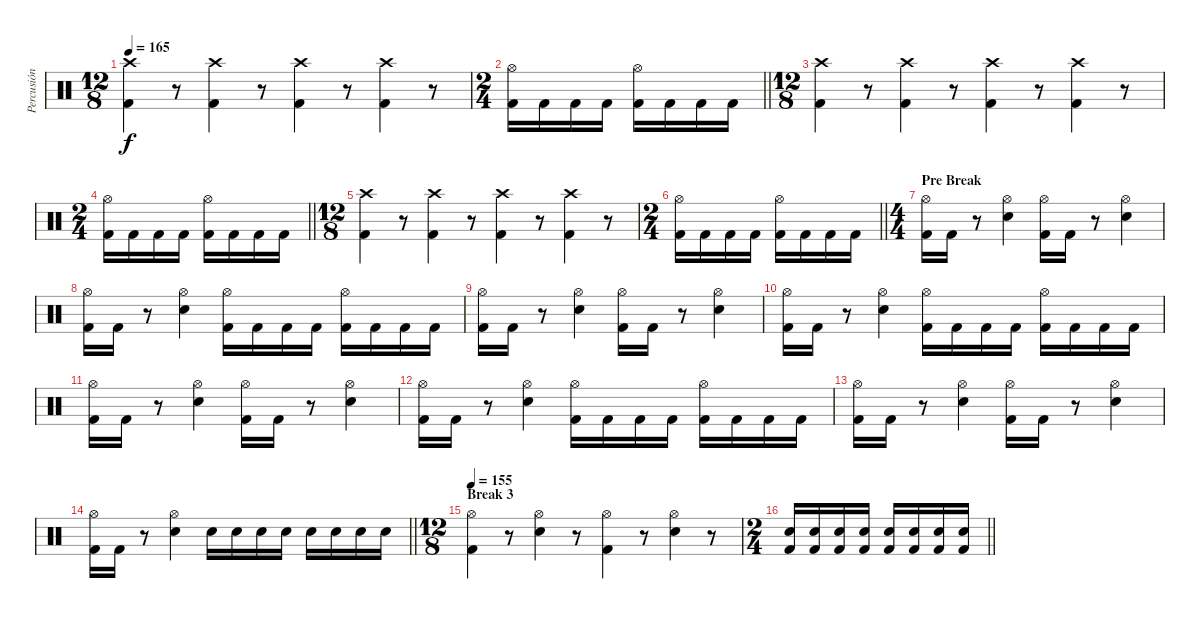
\track ("Percusión" "Percusión") {instrument percussion}
\staff {score}
\articulation defaults
\ts (12 8)
\tempo 165
\clef neutral
\ks c
("Crash high (hit)" "Kick (hit) 2").4{dy f} r.8 ("Crash high (hit)" "Kick (hit) 2").4 r.8 ("Crash high (hit)" "Kick (hit) 2").4 r.8 ("Crash high (hit)" "Kick (hit) 2").4 r.8 |
\ts (2 4)
\barLineRight lightlight
("Hi-Hat (open)" "Kick (hit) 2").16 "Kick (hit) 2".16 "Kick (hit) 2".16 "Kick (hit) 2".16 ("Hi-Hat (open)" "Kick (hit) 2").16 "Kick (hit) 2".16 "Kick (hit) 2".16 "Kick (hit) 2".16 |
\ts (12 8)
("Crash high (hit)" "Kick (hit) 2").4 r.8 ("Crash high (hit)" "Kick (hit) 2").4 r.8 ("Crash high (hit)" "Kick (hit) 2").4 r.8 ("Crash high (hit)" "Kick (hit) 2").4 r.8 |
\ts (2 4)
\barLineRight lightlight
("Hi-Hat (open)" "Kick (hit) 2").16 "Kick (hit) 2".16 "Kick (hit) 2".16 "Kick (hit) 2".16 ("Hi-Hat (open)" "Kick (hit) 2").16 "Kick (hit) 2".16 "Kick (hit) 2".16 "Kick (hit) 2".16 |
\ts (12 8)
("Crash high (hit)" "Kick (hit) 2").4 r.8 ("Crash high (hit)" "Kick (hit) 2").4 r.8 ("Crash high (hit)" "Kick (hit) 2").4 r.8 ("Crash high (hit)" "Kick (hit) 2").4 r.8 |
\ts (2 4)
\barLineRight lightlight
("Hi-Hat (open)" "Kick (hit) 2").16 "Kick (hit) 2".16 "Kick (hit) 2".16 "Kick (hit) 2".16 ("Hi-Hat (open)" "Kick (hit) 2").16 "Kick (hit) 2".16 "Kick (hit) 2".16 "Kick (hit) 2".16 |
\ts (4 4)
\section ("" "Pre Break")
("Hi-Hat (open)" "Kick (hit) 2").16 "Kick (hit) 2".16 r.8 ("Hi-Hat (open)" "Snare (hit) 2").4 ("Hi-Hat (open)" "Kick (hit) 2").16 "Kick (hit) 2".16 r.8 ("Hi-Hat (open)" "Snare (hit) 2").4 |
("Hi-Hat (open)" "Kick (hit) 2").16 "Kick (hit) 2".16 r.8 ("Hi-Hat (open)" "Snare (hit) 2").4 ("Hi-Hat (open)" "Kick (hit) 2").16 "Kick (hit) 2".16 "Kick (hit) 2".16 "Kick (hit) 2".16 ("Hi-Hat (open)" "Kick (hit) 2").16 "Kick (hit) 2".16 "Kick (hit) 2".16 "Kick (hit) 2".16 |
("Hi-Hat (open)" "Kick (hit) 2").16 "Kick (hit) 2".16 r.8 ("Hi-Hat (open)" "Snare (hit) 2").4 ("Hi-Hat (open)" "Kick (hit) 2").16 "Kick (hit) 2".16 r.8 ("Hi-Hat (open)" "Snare (hit) 2").4 |
("Hi-Hat (open)" "Kick (hit) 2").16 "Kick (hit) 2".16 r.8 ("Hi-Hat (open)" "Snare (hit) 2").4 ("Hi-Hat (open)" "Kick (hit) 2").16 "Kick (hit) 2".16 "Kick (hit) 2".16 "Kick (hit) 2".16 ("Hi-Hat (open)" "Kick (hit) 2").16 "Kick (hit) 2".16 "Kick (hit) 2".16 "Kick (hit) 2".16 |
("Hi-Hat (open)" "Kick (hit) 2").16 "Kick (hit) 2".16 r.8 ("Hi-Hat (open)" "Snare (hit) 2").4 ("Hi-Hat (open)" "Kick (hit) 2").16 "Kick (hit) 2".16 r.8 ("Hi-Hat (open)" "Snare (hit) 2").4 |
("Hi-Hat (open)" "Kick (hit) 2").16 "Kick (hit) 2".16 r.8 ("Hi-Hat (open)" "Snare (hit) 2").4 ("Hi-Hat (open)" "Kick (hit) 2").16 "Kick (hit) 2".16 "Kick (hit) 2".16 "Kick (hit) 2".16 ("Hi-Hat (open)" "Kick (hit) 2").16 "Kick (hit) 2".16 "Kick (hit) 2".16 "Kick (hit) 2".16 |
("Hi-Hat (open)" "Kick (hit) 2").16 "Kick (hit) 2".16 r.8 ("Hi-Hat (open)" "Snare (hit) 2").4 ("Hi-Hat (open)" "Kick (hit) 2").16 "Kick (hit) 2".16 r.8 ("Hi-Hat (open)" "Snare (hit) 2").4 |
\barLineRight lightlight
("Hi-Hat (open)" "Kick (hit) 2").16 "Kick (hit) 2".16 r.8 ("Hi-Hat (open)" "Snare (hit) 2").4 "Snare (hit) 2".16 "Snare (hit) 2".16 "Snare (hit) 2".16 "Snare (hit) 2".16 "Snare (hit) 2".16 "Snare (hit) 2".16 "Snare (hit) 2".16 "Snare (hit) 2".16 |
\ts (12 8)
\section ("" "Break 3")
\tempo 155
("Hi-Hat (open)" "Kick (hit) 2").4 r.8 ("Hi-Hat (open)" "Snare (hit) 2").4 r.8 ("Hi-Hat (open)" "Kick (hit) 2").4 r.8 ("Hi-Hat (open)" "Snare (hit) 2").4 r.8 |
\ts (2 4)
\barLineRight lightlight
("Snare (hit) 2" "Kick (hit) 2").16 ("Snare (hit) 2" "Kick (hit) 2").16 ("Snare (hit) 2" "Kick (hit) 2").16 ("Snare (hit) 2" "Kick (hit) 2").16 ("Snare (hit) 2" "Kick (hit) 2").16 ("Snare (hit) 2" "Kick (hit) 2").16 ("Snare (hit) 2" "Kick (hit) 2").16 ("Snare (hit) 2" "Kick (hit) 2").16
